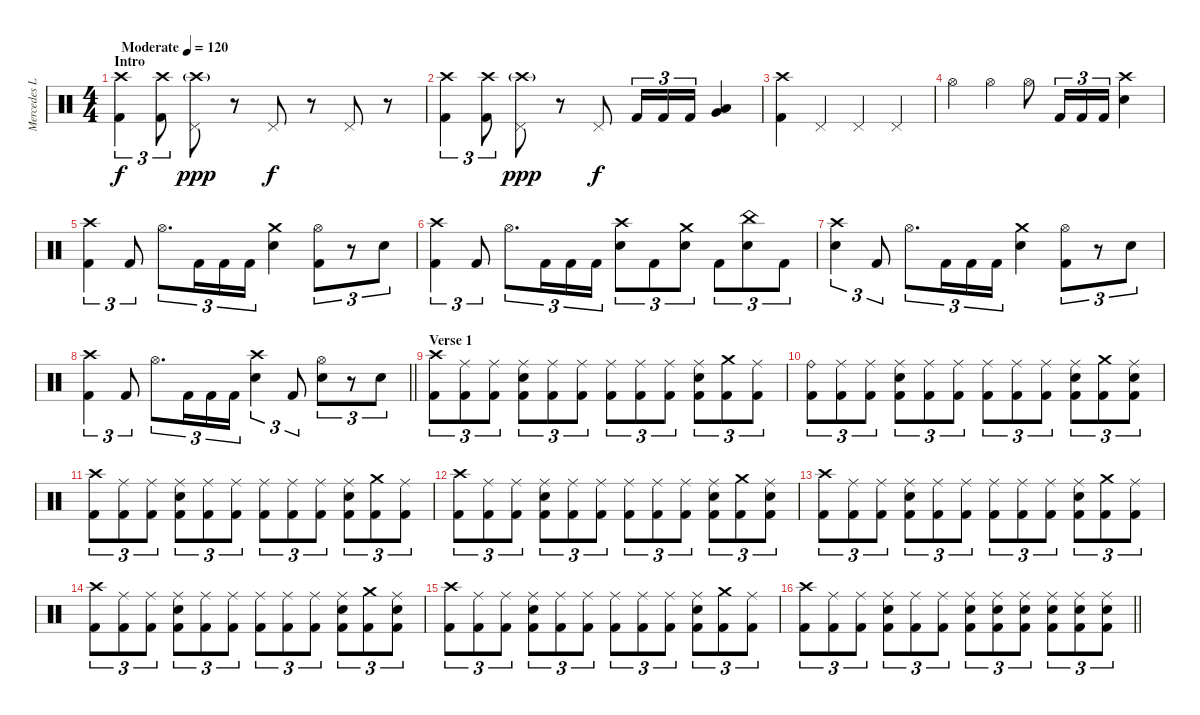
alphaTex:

\track ("Mercedes Lander" "Mercedes L") {instrument percussion}
\staff {score}
\articulation defaults
\ts (4 4)
\section ("" "Intro")
\tempo (120 "Moderate")
\clef neutral
\ks c
("Crash high (hit)" "Kick (hit) 2").4{tu (3 2) dy f} ("Crash high (hit)" "Kick (hit) 2").8{tu (3 2)} ("Crash high (hit)"{g} "Pedal Hi-Hat (hit)").8{dy ppp} r.8 "Pedal Hi-Hat (hit)".8{dy f} r.8 "Pedal Hi-Hat (hit)".8 r.8 |
("Crash high (hit)" "Kick (hit) 2").4{tu (3 2)} ("Crash high (hit)" "Kick (hit) 2").8{tu (3 2)} ("Crash high (hit)"{g} "Pedal Hi-Hat (hit)").8{dy ppp} r.8 "Pedal Hi-Hat (hit)".8{dy f} "Kick (hit) 2".16{tu (3 2)} "Kick (hit) 2".16{tu (3 2)} "Kick (hit) 2".16{tu (3 2)} ("Very Low Tom (hit)" "Low Floor Tom (hit)").4 |
("Crash high (hit)" "Kick (hit) 2").4 "Pedal Hi-Hat (hit)".4 "Pedal Hi-Hat (hit)".4 "Pedal Hi-Hat (hit)".4 |
"Hi-Hat (open)".4 "Hi-Hat (open)".4 "Hi-Hat (open)".8 "Kick (hit) 2".16{tu (3 2)} "Kick (hit) 2".16{tu (3 2)} "Kick (hit) 2".16{tu (3 2)} ("Crash high (hit)" "Snare (hit) 2").4 |
("Crash high (hit)" "Kick (hit) 2").4{tu (3 2)} "Kick (hit) 2".8{tu (3 2)} "Hi-Hat (open)".8{d tu (3 2)} "Kick (hit) 2".16{tu (3 2)} "Kick (hit) 2".16{tu (3 2)} "Kick (hit) 2".16{tu (3 2)} ("Crash medium (hit)" "Snare (hit) 2").4 ("Hi-Hat (open)" "Kick (hit) 2").8{tu (3 2)} r.8{tu (3 2)} "Snare (hit) 2".8{tu (3 2)} |
("Crash high (hit)" "Kick (hit) 2").4{tu (3 2)} "Kick (hit) 2".8{tu (3 2)} "Hi-Hat (open)".8{d tu (3 2)} "Kick (hit) 2".16{tu (3 2)} "Kick (hit) 2".16{tu (3 2)} "Kick (hit) 2".16{tu (3 2)} ("Crash high (hit)" "Snare (hit) 2").8{tu (3 2)} "Kick (hit) 2".8{tu (3 2)} ("Crash medium (hit)" "Snare (hit) 2").8{tu (3 2)} "Kick (hit) 2".8{tu (3 2)} ("China (hit)" "Snare (hit) 2").8{tu (3 2)} "Kick (hit) 2".8{tu (3 2)} |
("Crash high (hit)" "Snare (hit) 2").4{tu (3 2)} "Kick (hit) 2".8{tu (3 2)} "Hi-Hat (open)".8{d tu (3 2)} "Kick (hit) 2".16{tu (3 2)} "Kick (hit) 2".16{tu (3 2)} "Kick (hit) 2".16{tu (3 2)} ("Crash medium (hit)" "Snare (hit) 2").4 ("Hi-Hat (open)" "Kick (hit) 2").8{tu (3 2)} r.8{tu (3 2)} "Snare (hit) 2".8{tu (3 2)} |
\barLineRight lightlight
("Crash high (hit)" "Kick (hit) 2").4{tu (3 2)} "Kick (hit) 2".8{tu (3 2)} "Hi-Hat (open)".8{d tu (3 2)} "Kick (hit) 2".16{tu (3 2)} "Kick (hit) 2".16{tu (3 2)} "Kick (hit) 2".16{tu (3 2)} ("Crash high (hit)" "Snare (hit) 2").4{tu (3 2)} "Kick (hit) 2".8{tu (3 2)} ("Hi-Hat (open)" "Snare (hit) 2").8{tu (3 2)} r.8{tu (3 2)} "Snare (hit) 2".8{tu (3 2)} |
\section ("" "Verse 1")
("Crash high (hit)" "Kick (hit) 2").8{tu (3 2)} ("Ride (middle)" "Kick (hit) 2").8{tu (3 2)} ("Ride (middle)" "Kick (hit) 2").8{tu (3 2)} ("Ride (middle)" "Snare (hit) 2" "Kick (hit) 2").8{tu (3 2)} ("Ride (middle)" "Kick (hit) 2").8{tu (3 2)} ("Ride (middle)" "Kick (hit) 2").8{tu (3 2)} ("Ride (middle)" "Kick (hit) 2").8{tu (3 2)} ("Ride (middle)" "Kick (hit) 2").8{tu (3 2)} ("Ride (middle)" "Kick (hit) 2").8{tu (3 2)} ("Ride (middle)" "Snare (hit) 2" "Kick (hit) 2").8{tu (3 2)} ("Crash medium (hit)" "Kick (hit) 2").8{tu (3 2)} ("Ride (middle)" "Kick (hit) 2").8{tu (3 2)} |
("Ride (bell)" "Kick (hit) 2").8{tu (3 2)} ("Ride (middle)" "Kick (hit) 2").8{tu (3 2)} ("Ride (middle)" "Kick (hit) 2").8{tu (3 2)} ("Ride (middle)" "Snare (hit) 2" "Kick (hit) 2").8{tu (3 2)} ("Ride (middle)" "Kick (hit) 2").8{tu (3 2)} ("Ride (middle)" "Kick (hit) 2").8{tu (3 2)} ("Ride (middle)" "Kick (hit) 2").8{tu (3 2)} ("Ride (middle)" "Kick (hit) 2").8{tu (3 2)} ("Ride (middle)" "Kick (hit) 2").8{tu (3 2)} ("Ride (middle)" "Snare (hit) 2" "Kick (hit) 2").8{tu (3 2)} ("Crash medium (hit)" "Kick (hit) 2").8{tu (3 2)} ("Ride (middle)" "Snare (hit) 2" "Kick (hit) 2").8{tu (3 2)} |
("Crash high (hit)" "Kick (hit) 2").8{tu (3 2)} ("Ride (middle)" "Kick (hit) 2").8{tu (3 2)} ("Ride (middle)" "Kick (hit) 2").8{tu (3 2)} ("Ride (middle)" "Snare (hit) 2" "Kick (hit) 2").8{tu (3 2)} ("Ride (middle)" "Kick (hit) 2").8{tu (3 2)} ("Ride (middle)" "Kick (hit) 2").8{tu (3 2)} ("Ride (middle)" "Kick (hit) 2").8{tu (3 2)} ("Ride (middle)" "Kick (hit) 2").8{tu (3 2)} ("Ride (middle)" "Kick (hit) 2").8{tu (3 2)} ("Ride (middle)" "Snare (hit) 2" "Kick (hit) 2").8{tu (3 2)} ("Crash medium (hit)" "Kick (hit) 2").8{tu (3 2)} ("Ride (middle)" "Kick (hit) 2").8{tu (3 2)} |
("Crash high (hit)" "Kick (hit) 2").8{tu (3 2)} ("Ride (middle)" "Kick (hit) 2").8{tu (3 2)} ("Ride (middle)" "Kick (hit) 2").8{tu (3 2)} ("Ride (middle)" "Snare (hit) 2" "Kick (hit) 2").8{tu (3 2)} ("Ride (middle)" "Kick (hit) 2").8{tu (3 2)} ("Ride (middle)" "Kick (hit) 2").8{tu (3 2)} ("Ride (middle)" "Kick (hit) 2").8{tu (3 2)} ("Ride (middle)" "Kick (hit) 2").8{tu (3 2)} ("Ride (middle)" "Kick (hit) 2").8{tu (3 2)} ("Ride (middle)" "Snare (hit) 2" "Kick (hit) 2").8{tu (3 2)} ("Crash medium (hit)" "Kick (hit) 2").8{tu (3 2)} ("Ride (middle)" "Snare (hit) 2" "Kick (hit) 2").8{tu (3 2)} |
("Crash high (hit)" "Kick (hit) 2").8{tu (3 2)} ("Ride (middle)" "Kick (hit) 2").8{tu (3 2)} ("Ride (middle)" "Kick (hit) 2").8{tu (3 2)} ("Ride (middle)" "Snare (hit) 2" "Kick (hit) 2").8{tu (3 2)} ("Ride (middle)" "Kick (hit) 2").8{tu (3 2)} ("Ride (middle)" "Kick (hit) 2").8{tu (3 2)} ("Ride (middle)" "Kick (hit) 2").8{tu (3 2)} ("Ride (middle)" "Kick (hit) 2").8{tu (3 2)} ("Ride (middle)" "Kick (hit) 2").8{tu (3 2)} ("Ride (middle)" "Snare (hit) 2" "Kick (hit) 2").8{tu (3 2)} ("Crash medium (hit)" "Kick (hit) 2").8{tu (3 2)} ("Ride (middle)" "Kick (hit) 2").8{tu (3 2)} |
("Crash high (hit)" "Kick (hit) 2").8{tu (3 2)} ("Ride (middle)" "Kick (hit) 2").8{tu (3 2)} ("Ride (middle)" "Kick (hit) 2").8{tu (3 2)} ("Ride (middle)" "Snare (hit) 2" "Kick (hit) 2").8{tu (3 2)} ("Ride (middle)" "Kick (hit) 2").8{tu (3 2)} ("Ride (middle)" "Kick (hit) 2").8{tu (3 2)} ("Ride (middle)" "Kick (hit) 2").8{tu (3 2)} ("Ride (middle)" "Kick (hit) 2").8{tu (3 2)} ("Ride (middle)" "Kick (hit) 2").8{tu (3 2)} ("Ride (middle)" "Snare (hit) 2" "Kick (hit) 2").8{tu (3 2)} ("Crash medium (hit)" "Kick (hit) 2").8{tu (3 2)} ("Ride (middle)" "Snare (hit) 2" "Kick (hit) 2").8{tu (3 2)} |
("Crash high (hit)" "Kick (hit) 2").8{tu (3 2)} ("Ride (middle)" "Kick (hit) 2").8{tu (3 2)} ("Ride (middle)" "Kick (hit) 2").8{tu (3 2)} ("Ride (middle)" "Snare (hit) 2" "Kick (hit) 2").8{tu (3 2)} ("Ride (middle)" "Kick (hit) 2").8{tu (3 2)} ("Ride (middle)" "Kick (hit) 2").8{tu (3 2)} ("Ride (middle)" "Kick (hit) 2").8{tu (3 2)} ("Ride (middle)" "Kick (hit) 2").8{tu (3 2)} ("Ride (middle)" "Kick (hit) 2").8{tu (3 2)} ("Ride (middle)" "Snare (hit) 2" "Kick (hit) 2").8{tu (3 2)} ("Crash medium (hit)" "Kick (hit) 2").8{tu (3 2)} ("Ride (middle)" "Kick (hit) 2").8{tu (3 2)} |
\barLineRight lightlight
("Crash high (hit)" "Kick (hit) 2").8{tu (3 2)} ("Ride (middle)" "Kick (hit) 2").8{tu (3 2)} ("Ride (middle)" "Kick (hit) 2").8{tu (3 2)} ("Ride (middle)" "Snare (hit) 2" "Kick (hit) 2").8{tu (3 2)} ("Ride (middle)" "Kick (hit) 2").8{tu (3 2)} ("Ride (middle)" "Kick (hit) 2").8{tu (3 2)} ("Ride (middle)" "Snare (hit) 2" "Kick (hit) 2").8{tu (3 2)} ("Ride (middle)" "Snare (hit) 2" "Kick (hit) 2").8{tu (3 2)} ("Ride (middle)" "Snare (hit) 2" "Kick (hit) 2").8{tu (3 2)} ("Ride (middle)" "Snare (hit) 2" "Kick (hit) 2").8{tu (3 2)} ("Ride (middle)" "Snare (hit) 2" "Kick (hit) 2").8{tu (3 2)} ("Ride (middle)" "Snare (hit) 2" "Kick (hit) 2").8{tu (3 2)}
